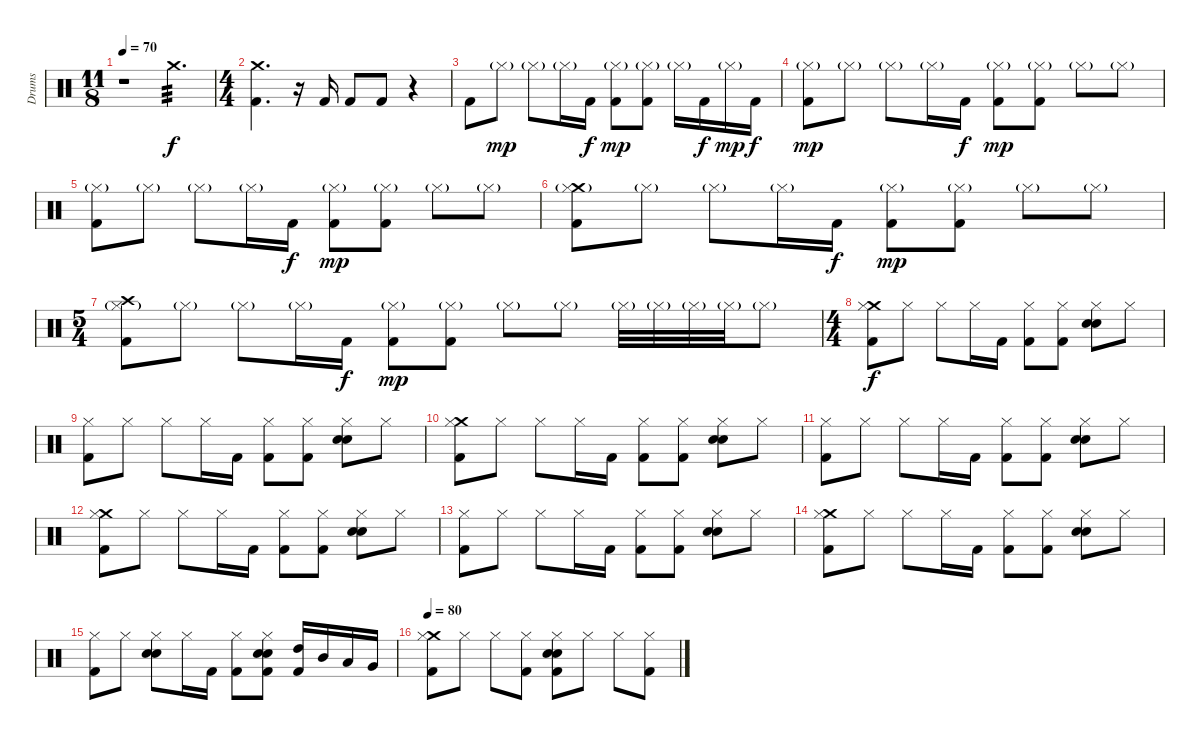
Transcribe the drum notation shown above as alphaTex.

\track ("Drums" "Drums") {instrument percussion}
\staff {score}
\articulation defaults
\ts (11 8)
\tempo 70
\clef neutral
\ks c
r.1{dy f} "Crash medium (hit)".4{d tp 3 volume 14} |
\ts (4 4)
("Crash medium (hit)" "Kick (hit) 2").4{d} r.16 "Kick (hit) 2".16 "Kick (hit) 2".8 "Kick (hit) 2".8 r.4 |
"Kick (hit) 2".8 "Hi-Hat (closed)"{g}.8{dy mp} "Hi-Hat (closed)"{g}.8 "Hi-Hat (closed)"{g}.16 "Kick (hit) 2".16{dy f} ("Hi-Hat (closed)"{g} "Kick (hit) 2").8{dy mp} ("Hi-Hat (closed)"{g} "Kick (hit) 2").8 "Hi-Hat (closed)"{g}.16 "Kick (hit) 2".16{dy f} "Hi-Hat (closed)"{g}.16{dy mp} "Kick (hit) 2".16{dy f} |
("Hi-Hat (closed)"{g} "Kick (hit) 2").8{dy mp} "Hi-Hat (closed)"{g}.8 "Hi-Hat (closed)"{g}.8 "Hi-Hat (closed)"{g}.16 "Kick (hit) 2".16{dy f} ("Hi-Hat (closed)"{g} "Kick (hit) 2").8{dy mp} ("Hi-Hat (closed)"{g} "Kick (hit) 2").8 "Hi-Hat (closed)"{g}.8 "Hi-Hat (closed)"{g}.8 |
("Hi-Hat (closed)"{g} "Kick (hit) 2").8 "Hi-Hat (closed)"{g}.8 "Hi-Hat (closed)"{g}.8 "Hi-Hat (closed)"{g}.16 "Kick (hit) 2".16{dy f} ("Hi-Hat (closed)"{g} "Kick (hit) 2").8{dy mp} ("Hi-Hat (closed)"{g} "Kick (hit) 2").8 "Hi-Hat (closed)"{g}.8 "Hi-Hat (closed)"{g}.8 |
("Crash medium (hit)" "Hi-Hat (closed)"{g} "Kick (hit) 2").8 "Hi-Hat (closed)"{g}.8 "Hi-Hat (closed)"{g}.8 "Hi-Hat (closed)"{g}.16 "Kick (hit) 2".16{dy f} ("Hi-Hat (closed)"{g} "Kick (hit) 2").8{dy mp} ("Hi-Hat (closed)"{g} "Kick (hit) 2").8 "Hi-Hat (closed)"{g}.8 "Hi-Hat (closed)"{g}.8 |
\ts (5 4)
("Crash high (hit)" "Hi-Hat (closed)"{g} "Kick (hit) 2").8 "Hi-Hat (closed)"{g}.8 "Hi-Hat (closed)"{g}.8 "Hi-Hat (closed)"{g}.16 "Kick (hit) 2".16{dy f} ("Hi-Hat (closed)"{g} "Kick (hit) 2").8{dy mp} ("Hi-Hat (closed)"{g} "Kick (hit) 2").8 "Hi-Hat (closed)"{g}.8 "Hi-Hat (closed)"{g}.8 "Hi-Hat (closed)"{g}.32 "Hi-Hat (closed)"{g}.32 "Hi-Hat (closed)"{g}.32 "Hi-Hat (closed)"{g}.32 "Hi-Hat (closed)"{g}.8 |
\ts (4 4)
("Crash medium (hit)" "Hi-Hat (closed)" "Kick (hit) 2").8{dy f} "Hi-Hat (closed)".8 "Hi-Hat (closed)".8 "Hi-Hat (closed)".16 "Kick (hit) 2".16 ("Hi-Hat (closed)" "Kick (hit) 2").8 ("Hi-Hat (closed)" "Kick (hit) 2").8 ("Electric Snare (hit)" "Hi-Hat (closed)" "Snare (hit) 2").8 "Hi-Hat (closed)".8 |
("Hi-Hat (closed)" "Kick (hit) 2").8 "Hi-Hat (closed)".8 "Hi-Hat (closed)".8 "Hi-Hat (closed)".16 "Kick (hit) 2".16 ("Hi-Hat (closed)" "Kick (hit) 2").8 ("Hi-Hat (closed)" "Kick (hit) 2").8 ("Electric Snare (hit)" "Hi-Hat (closed)" "Snare (hit) 2").8 "Hi-Hat (closed)".8 |
("Crash medium (hit)" "Hi-Hat (closed)" "Kick (hit) 2").8 "Hi-Hat (closed)".8 "Hi-Hat (closed)".8 "Hi-Hat (closed)".16 "Kick (hit) 2".16 ("Hi-Hat (closed)" "Kick (hit) 2").8 ("Hi-Hat (closed)" "Kick (hit) 2").8 ("Electric Snare (hit)" "Hi-Hat (closed)" "Snare (hit) 2").8 "Hi-Hat (closed)".8 |
("Hi-Hat (closed)" "Kick (hit) 2").8 "Hi-Hat (closed)".8 "Hi-Hat (closed)".8 "Hi-Hat (closed)".16 "Kick (hit) 2".16 ("Hi-Hat (closed)" "Kick (hit) 2").8 ("Hi-Hat (closed)" "Kick (hit) 2").8 ("Electric Snare (hit)" "Hi-Hat (closed)" "Snare (hit) 2").8 "Hi-Hat (closed)".8 |
("Crash medium (hit)" "Hi-Hat (closed)" "Kick (hit) 2").8 "Hi-Hat (closed)".8 "Hi-Hat (closed)".8 "Hi-Hat (closed)".16 "Kick (hit) 2".16 ("Hi-Hat (closed)" "Kick (hit) 2").8 ("Hi-Hat (closed)" "Kick (hit) 2").8 ("Electric Snare (hit)" "Hi-Hat (closed)" "Snare (hit) 2").8 "Hi-Hat (closed)".8 |
("Hi-Hat (closed)" "Kick (hit) 2").8 "Hi-Hat (closed)".8 "Hi-Hat (closed)".8 "Hi-Hat (closed)".16 "Kick (hit) 2".16 ("Hi-Hat (closed)" "Kick (hit) 2").8 ("Hi-Hat (closed)" "Kick (hit) 2").8 ("Electric Snare (hit)" "Hi-Hat (closed)" "Snare (hit) 2").8 "Hi-Hat (closed)".8 |
("Crash medium (hit)" "Hi-Hat (closed)" "Kick (hit) 2").8 "Hi-Hat (closed)".8 "Hi-Hat (closed)".8 "Hi-Hat (closed)".16 "Kick (hit) 2".16 ("Hi-Hat (closed)" "Kick (hit) 2").8 ("Hi-Hat (closed)" "Kick (hit) 2").8 ("Electric Snare (hit)" "Hi-Hat (closed)" "Snare (hit) 2").8 "Hi-Hat (closed)".8 |
("Hi-Hat (closed)" "Kick (hit) 2").8 "Hi-Hat (closed)".8 ("Electric Snare (hit)" "Hi-Hat (closed)" "Snare (hit) 2").8 "Hi-Hat (closed)".16 "Kick (hit) 2".16 ("Hi-Hat (closed)" "Kick (hit) 2").8 ("Electric Snare (hit)" "Hi-Hat (closed)" "Snare (hit) 2" "Kick (hit) 2").8 ("High Tom (hit)" "Kick (hit) 2").16 "Mid Tom (hit)".16 "Low Tom (hit)".16 "Very Low Tom (hit)".16 |
\tempo 80
("Crash medium (hit)" "Hi-Hat (closed)" "Kick (hit) 2").8 "Hi-Hat (closed)".8 "Hi-Hat (closed)".8 ("Hi-Hat (closed)" "Kick (hit) 2").8 ("Electric Snare (hit)" "Hi-Hat (closed)" "Snare (hit) 2" "Kick (hit) 2").8 "Hi-Hat (closed)".8 "Hi-Hat (closed)".8 ("Hi-Hat (closed)" "Kick (hit) 2").8
